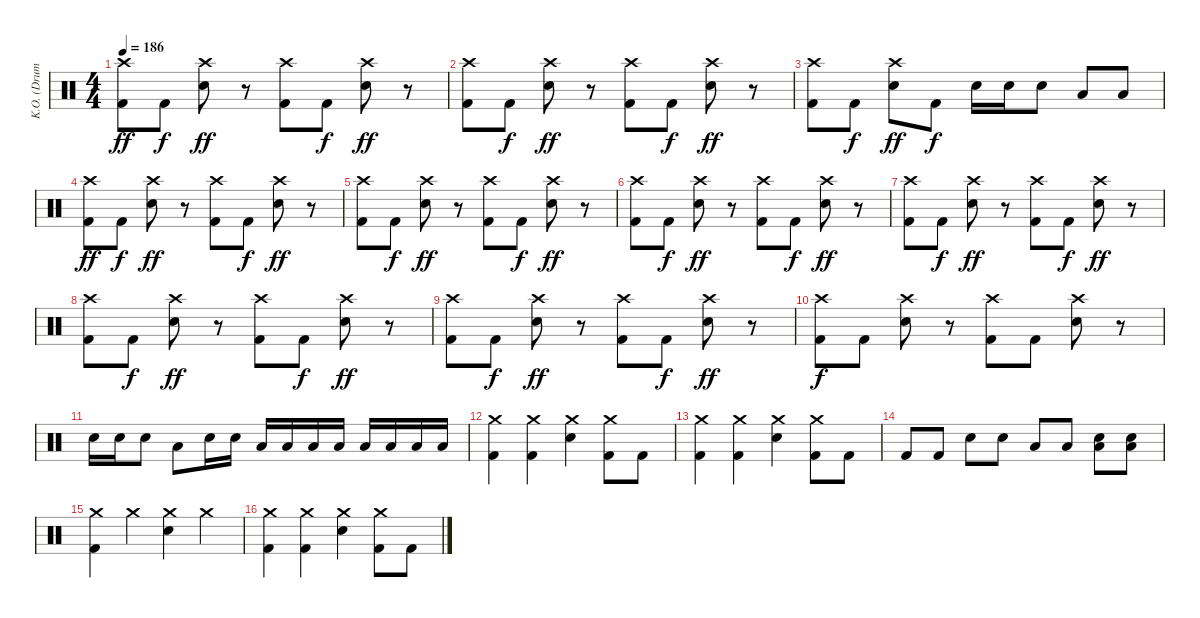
\track ("K.O. (Drums)" "K.O. (Drum") {instrument percussion}
\staff {score}
\articulation defaults
\ts (4 4)
\tempo 186
\clef neutral
\ks c
("Crash high (hit)" "Kick (hit) 2").8{dy ff} "Kick (hit) 2".8{dy f} ("Crash high (hit)" "Electric Snare (hit)").8{dy ff} r.8 ("Crash high (hit)" "Kick (hit) 2").8 "Kick (hit) 2".8{dy f} ("Crash high (hit)" "Electric Snare (hit)").8{dy ff} r.8 |
("Crash high (hit)" "Kick (hit) 2").8 "Kick (hit) 2".8{dy f} ("Crash high (hit)" "Electric Snare (hit)").8{dy ff} r.8 ("Crash high (hit)" "Kick (hit) 2").8 "Kick (hit) 2".8{dy f} ("Crash high (hit)" "Electric Snare (hit)").8{dy ff} r.8 |
("Crash high (hit)" "Kick (hit) 2").8 "Kick (hit) 2".8{dy f} ("Crash high (hit)" "Electric Snare (hit)").8{dy ff} "Kick (hit) 2".8{dy f} "Electric Snare (hit)".16 "Electric Snare (hit)".16 "Electric Snare (hit)".8 "Low Tom (hit)".8 "Low Tom (hit)".8 |
("Crash high (hit)" "Kick (hit) 2").8{dy ff} "Kick (hit) 2".8{dy f} ("Crash high (hit)" "Electric Snare (hit)").8{dy ff} r.8 ("Crash high (hit)" "Kick (hit) 2").8 "Kick (hit) 2".8{dy f} ("Crash high (hit)" "Electric Snare (hit)").8{dy ff} r.8 |
("Crash high (hit)" "Kick (hit) 2").8 "Kick (hit) 2".8{dy f} ("Crash high (hit)" "Electric Snare (hit)").8{dy ff} r.8 ("Crash high (hit)" "Kick (hit) 2").8 "Kick (hit) 2".8{dy f} ("Crash high (hit)" "Electric Snare (hit)").8{dy ff} r.8 |
("Crash high (hit)" "Kick (hit) 2").8 "Kick (hit) 2".8{dy f} ("Crash high (hit)" "Electric Snare (hit)").8{dy ff} r.8 ("Crash high (hit)" "Kick (hit) 2").8 "Kick (hit) 2".8{dy f} ("Crash high (hit)" "Electric Snare (hit)").8{dy ff} r.8 |
("Crash high (hit)" "Kick (hit) 2").8 "Kick (hit) 2".8{dy f} ("Crash high (hit)" "Electric Snare (hit)").8{dy ff} r.8 ("Crash high (hit)" "Kick (hit) 2").8 "Kick (hit) 2".8{dy f} ("Crash high (hit)" "Electric Snare (hit)").8{dy ff} r.8 |
("Crash high (hit)" "Kick (hit) 2").8 "Kick (hit) 2".8{dy f} ("Crash high (hit)" "Electric Snare (hit)").8{dy ff} r.8 ("Crash high (hit)" "Kick (hit) 2").8 "Kick (hit) 2".8{dy f} ("Crash high (hit)" "Electric Snare (hit)").8{dy ff} r.8 |
("Crash high (hit)" "Kick (hit) 2").8 "Kick (hit) 2".8{dy f} ("Crash high (hit)" "Electric Snare (hit)").8{dy ff} r.8 ("Crash high (hit)" "Kick (hit) 2").8 "Kick (hit) 2".8{dy f} ("Crash high (hit)" "Electric Snare (hit)").8{dy ff} r.8 |
("Crash high (hit)" "Kick (hit) 2").8{dy f} "Kick (hit) 2".8 ("Crash high (hit)" "Electric Snare (hit)").8 r.8 ("Crash high (hit)" "Kick (hit) 2").8 "Kick (hit) 2".8 ("Crash high (hit)" "Electric Snare (hit)").8 r.8 |
"Electric Snare (hit)".16 "Electric Snare (hit)".16 "Electric Snare (hit)".8 "Low Tom (hit)".8 "Electric Snare (hit)".16 "Electric Snare (hit)".16 "Low Tom (hit)".16 "Low Tom (hit)".16 "Low Tom (hit)".16 "Low Tom (hit)".16 "Low Floor Tom (hit)".16 "Low Floor Tom (hit)".16 "Low Floor Tom (hit)".16 "Low Floor Tom (hit)".16 |
("Crash medium (hit)" "Kick (hit) 2").4 ("Crash medium (hit)" "Kick (hit) 2").4 ("Crash medium (hit)" "Electric Snare (hit)").4 ("Crash medium (hit)" "Kick (hit) 2").8 "Kick (hit) 2".8 |
("Crash medium (hit)" "Kick (hit) 2").4 ("Crash medium (hit)" "Kick (hit) 2").4 ("Crash medium (hit)" "Electric Snare (hit)").4 ("Crash medium (hit)" "Kick (hit) 2").8 "Kick (hit) 2".8 |
"Kick (hit) 2".8 "Kick (hit) 2".8 "Electric Snare (hit)".8 "Electric Snare (hit)".8 "Low Tom (hit)".8 "Low Tom (hit)".8 ("Low Floor Tom (hit)" "Electric Snare (hit)").8 ("Low Floor Tom (hit)" "Electric Snare (hit)").8 |
("Crash medium (hit)" "Kick (hit) 2").4 "Crash medium (hit)".4 ("Crash medium (hit)" "Electric Snare (hit)").4 "Crash medium (hit)".4 |
("Crash medium (hit)" "Kick (hit) 2").4 ("Crash medium (hit)" "Kick (hit) 2").4 ("Crash medium (hit)" "Electric Snare (hit)").4 ("Crash medium (hit)" "Kick (hit) 2").8 "Kick (hit) 2".8
